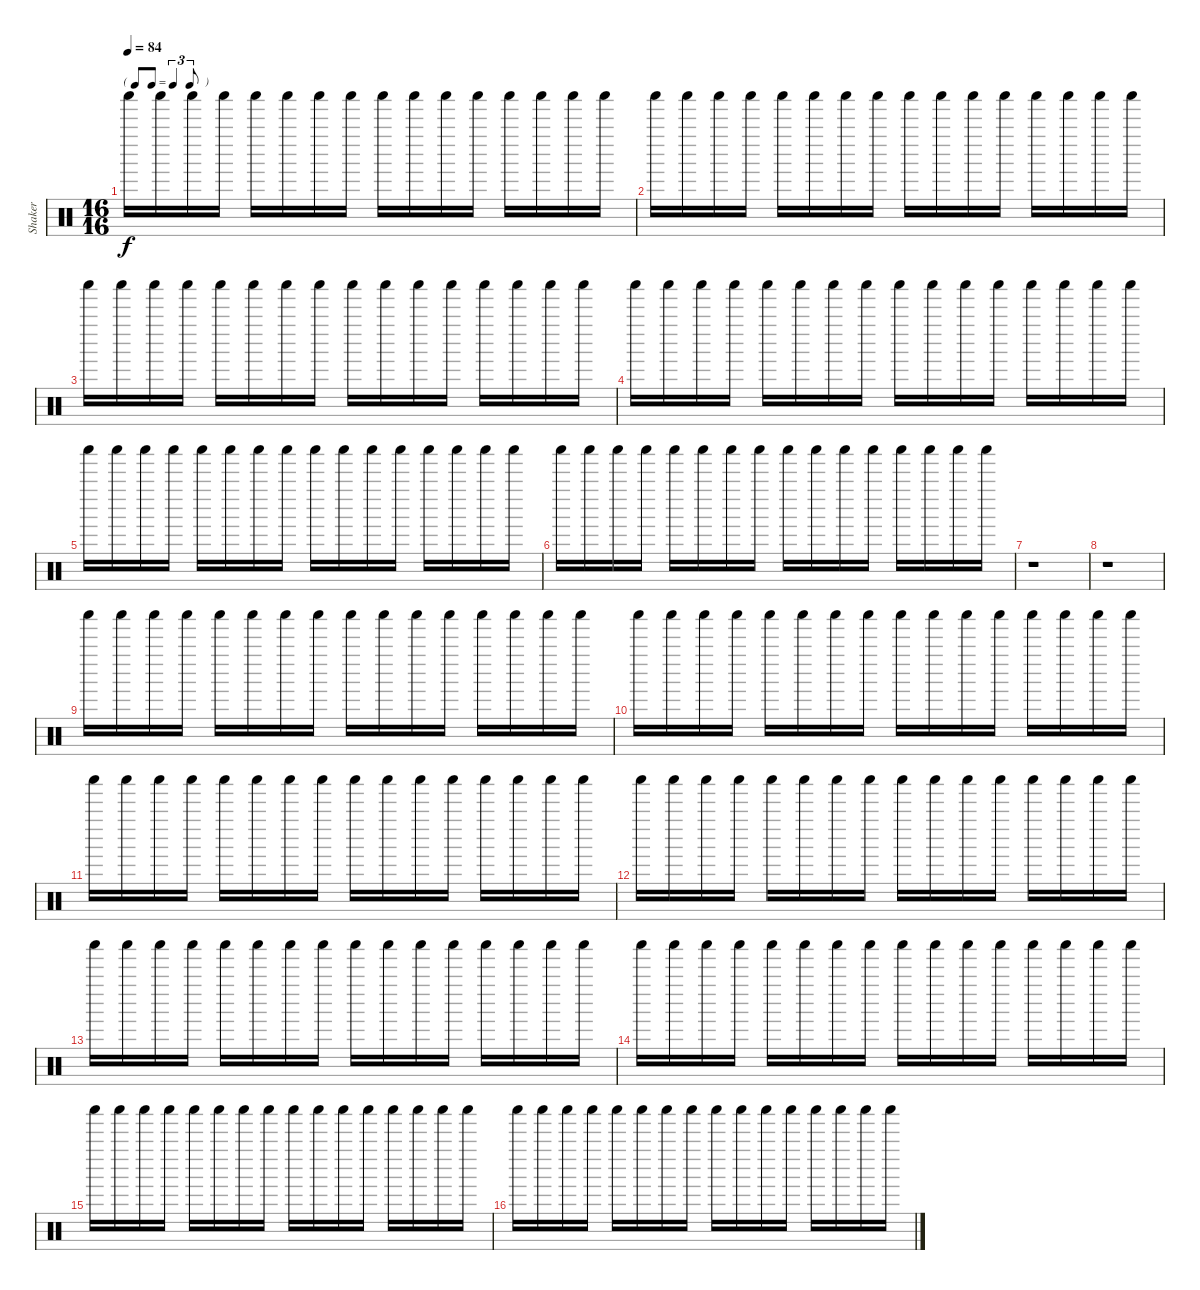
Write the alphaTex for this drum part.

\track ("Shaker" "Shaker") {instrument percussion}
\staff {score}
\articulation defaults
\ts (16 16)
\tf triplet8th
\tempo 84
\clef neutral
\ks c "Shaker (hit)".16{dy f} "Shaker (hit)".16 "Shaker (hit)".16 "Shaker (hit)".16 "Shaker (hit)".16 "Shaker (hit)".16 "Shaker (hit)".16 "Shaker (hit)".16 "Shaker (hit)".16 "Shaker (hit)".16 "Shaker (hit)".16 "Shaker (hit)".16 "Shaker (hit)".16 "Shaker (hit)".16 "Shaker (hit)".16 "Shaker (hit)".16
|
"Shaker (hit)".16 "Shaker (hit)".16 "Shaker (hit)".16 "Shaker (hit)".16 "Shaker (hit)".16 "Shaker (hit)".16 "Shaker (hit)".16 "Shaker (hit)".16 "Shaker (hit)".16 "Shaker (hit)".16 "Shaker (hit)".16 "Shaker (hit)".16 "Shaker (hit)".16 "Shaker (hit)".16 "Shaker (hit)".16 "Shaker (hit)".16 |
"Shaker (hit)".16 "Shaker (hit)".16 "Shaker (hit)".16 "Shaker (hit)".16 "Shaker (hit)".16 "Shaker (hit)".16 "Shaker (hit)".16 "Shaker (hit)".16 "Shaker (hit)".16 "Shaker (hit)".16 "Shaker (hit)".16 "Shaker (hit)".16 "Shaker (hit)".16 "Shaker (hit)".16 "Shaker (hit)".16 "Shaker (hit)".16 |
"Shaker (hit)".16 "Shaker (hit)".16 "Shaker (hit)".16 "Shaker (hit)".16 "Shaker (hit)".16 "Shaker (hit)".16 "Shaker (hit)".16 "Shaker (hit)".16 "Shaker (hit)".16 "Shaker (hit)".16 "Shaker (hit)".16 "Shaker (hit)".16 "Shaker (hit)".16 "Shaker (hit)".16 "Shaker (hit)".16 "Shaker (hit)".16 |
"Shaker (hit)".16 "Shaker (hit)".16 "Shaker (hit)".16 "Shaker (hit)".16 "Shaker (hit)".16 "Shaker (hit)".16 "Shaker (hit)".16 "Shaker (hit)".16 "Shaker (hit)".16 "Shaker (hit)".16 "Shaker (hit)".16 "Shaker (hit)".16 "Shaker (hit)".16 "Shaker (hit)".16 "Shaker (hit)".16 "Shaker (hit)".16 |
"Shaker (hit)".16 "Shaker (hit)".16 "Shaker (hit)".16 "Shaker (hit)".16 "Shaker (hit)".16 "Shaker (hit)".16 "Shaker (hit)".16 "Shaker (hit)".16 "Shaker (hit)".16 "Shaker (hit)".16 "Shaker (hit)".16 "Shaker (hit)".16 "Shaker (hit)".16 "Shaker (hit)".16 "Shaker (hit)".16 "Shaker (hit)".16 |
r.1 |
r.1 |
"Shaker (hit)".16 "Shaker (hit)".16 "Shaker (hit)".16 "Shaker (hit)".16 "Shaker (hit)".16 "Shaker (hit)".16 "Shaker (hit)".16 "Shaker (hit)".16 "Shaker (hit)".16 "Shaker (hit)".16 "Shaker (hit)".16 "Shaker (hit)".16 "Shaker (hit)".16 "Shaker (hit)".16 "Shaker (hit)".16 "Shaker (hit)".16 |
"Shaker (hit)".16 "Shaker (hit)".16 "Shaker (hit)".16 "Shaker (hit)".16 "Shaker (hit)".16 "Shaker (hit)".16 "Shaker (hit)".16 "Shaker (hit)".16 "Shaker (hit)".16 "Shaker (hit)".16 "Shaker (hit)".16 "Shaker (hit)".16 "Shaker (hit)".16 "Shaker (hit)".16 "Shaker (hit)".16 "Shaker (hit)".16 |
"Shaker (hit)".16 "Shaker (hit)".16 "Shaker (hit)".16 "Shaker (hit)".16 "Shaker (hit)".16 "Shaker (hit)".16 "Shaker (hit)".16 "Shaker (hit)".16 "Shaker (hit)".16 "Shaker (hit)".16 "Shaker (hit)".16 "Shaker (hit)".16 "Shaker (hit)".16 "Shaker (hit)".16 "Shaker (hit)".16 "Shaker (hit)".16 |
"Shaker (hit)".16 "Shaker (hit)".16 "Shaker (hit)".16 "Shaker (hit)".16 "Shaker (hit)".16 "Shaker (hit)".16 "Shaker (hit)".16 "Shaker (hit)".16 "Shaker (hit)".16 "Shaker (hit)".16 "Shaker (hit)".16 "Shaker (hit)".16 "Shaker (hit)".16 "Shaker (hit)".16 "Shaker (hit)".16 "Shaker (hit)".16 |
"Shaker (hit)".16 "Shaker (hit)".16 "Shaker (hit)".16 "Shaker (hit)".16 "Shaker (hit)".16 "Shaker (hit)".16 "Shaker (hit)".16 "Shaker (hit)".16 "Shaker (hit)".16 "Shaker (hit)".16 "Shaker (hit)".16 "Shaker (hit)".16 "Shaker (hit)".16 "Shaker (hit)".16 "Shaker (hit)".16 "Shaker (hit)".16 |
"Shaker (hit)".16 "Shaker (hit)".16 "Shaker (hit)".16 "Shaker (hit)".16 "Shaker (hit)".16 "Shaker (hit)".16 "Shaker (hit)".16 "Shaker (hit)".16 "Shaker (hit)".16 "Shaker (hit)".16 "Shaker (hit)".16 "Shaker (hit)".16 "Shaker (hit)".16 "Shaker (hit)".16 "Shaker (hit)".16 "Shaker (hit)".16 |
"Shaker (hit)".16 "Shaker (hit)".16 "Shaker (hit)".16 "Shaker (hit)".16 "Shaker (hit)".16 "Shaker (hit)".16 "Shaker (hit)".16 "Shaker (hit)".16 "Shaker (hit)".16 "Shaker (hit)".16 "Shaker (hit)".16 "Shaker (hit)".16 "Shaker (hit)".16 "Shaker (hit)".16 "Shaker (hit)".16 "Shaker (hit)".16 |
"Shaker (hit)".16 "Shaker (hit)".16 "Shaker (hit)".16 "Shaker (hit)".16 "Shaker (hit)".16 "Shaker (hit)".16 "Shaker (hit)".16 "Shaker (hit)".16 "Shaker (hit)".16 "Shaker (hit)".16 "Shaker (hit)".16 "Shaker (hit)".16 "Shaker (hit)".16 "Shaker (hit)".16 "Shaker (hit)".16 "Shaker (hit)".16
